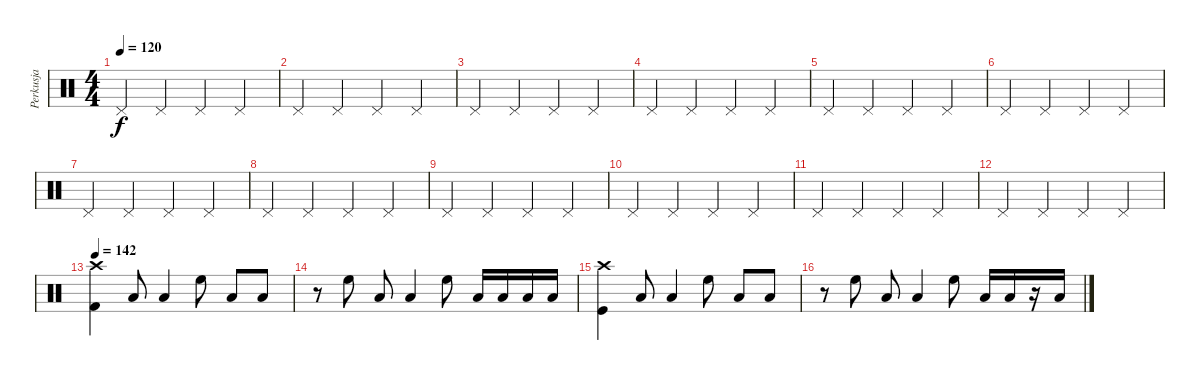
\track ("Perkusja" "Perkusja") {instrument percussion}
\staff {score}
\articulation defaults
\ts (4 4)
\tempo 120
\clef neutral
\ks c "Pedal Hi-Hat (hit)".4{dy f} "Pedal Hi-Hat (hit)".4 "Pedal Hi-Hat (hit)".4 "Pedal Hi-Hat (hit)".4
|
"Pedal Hi-Hat (hit)".4 "Pedal Hi-Hat (hit)".4 "Pedal Hi-Hat (hit)".4 "Pedal Hi-Hat (hit)".4 |
"Pedal Hi-Hat (hit)".4 "Pedal Hi-Hat (hit)".4 "Pedal Hi-Hat (hit)".4 "Pedal Hi-Hat (hit)".4 |
"Pedal Hi-Hat (hit)".4 "Pedal Hi-Hat (hit)".4 "Pedal Hi-Hat (hit)".4 "Pedal Hi-Hat (hit)".4 |
"Pedal Hi-Hat (hit)".4 "Pedal Hi-Hat (hit)".4 "Pedal Hi-Hat (hit)".4 "Pedal Hi-Hat (hit)".4 |
"Pedal Hi-Hat (hit)".4 "Pedal Hi-Hat (hit)".4 "Pedal Hi-Hat (hit)".4 "Pedal Hi-Hat (hit)".4 |
"Pedal Hi-Hat (hit)".4 "Pedal Hi-Hat (hit)".4 "Pedal Hi-Hat (hit)".4 "Pedal Hi-Hat (hit)".4 |
"Pedal Hi-Hat (hit)".4 "Pedal Hi-Hat (hit)".4 "Pedal Hi-Hat (hit)".4 "Pedal Hi-Hat (hit)".4 |
"Pedal Hi-Hat (hit)".4 "Pedal Hi-Hat (hit)".4 "Pedal Hi-Hat (hit)".4 "Pedal Hi-Hat (hit)".4 |
"Pedal Hi-Hat (hit)".4 "Pedal Hi-Hat (hit)".4 "Pedal Hi-Hat (hit)".4 "Pedal Hi-Hat (hit)".4 |
"Pedal Hi-Hat (hit)".4 "Pedal Hi-Hat (hit)".4 "Pedal Hi-Hat (hit)".4 "Pedal Hi-Hat (hit)".4 |
"Pedal Hi-Hat (hit)".4 "Pedal Hi-Hat (hit)".4 "Pedal Hi-Hat (hit)".4 "Pedal Hi-Hat (hit)".4 |
\tempo 142
("Kick (hit) 2" "Crash high (hit)").4 "Low Tom (hit)".8 "Low Tom (hit)".4 "High Floor Tom (hit)".8 "Low Tom (hit)".8 "Low Tom (hit)".8 |
r.8 "High Floor Tom (hit)".8 "Low Tom (hit)".8 "Low Tom (hit)".4 "High Floor Tom (hit)".8 "Low Tom (hit)".16 "Low Tom (hit)".16 "Low Tom (hit)".16 "Low Tom (hit)".16 |
("Kick (hit)" "Crash high (hit)").4 "Low Tom (hit)".8 "Low Tom (hit)".4 "High Floor Tom (hit)".8 "Low Tom (hit)".8 "Low Tom (hit)".8 |
r.8 "High Floor Tom (hit)".8 "Low Tom (hit)".8 "Low Tom (hit)".4 "High Floor Tom (hit)".8 "Low Tom (hit)".16 "Low Tom (hit)".16 r.16 "Low Tom (hit)".16
